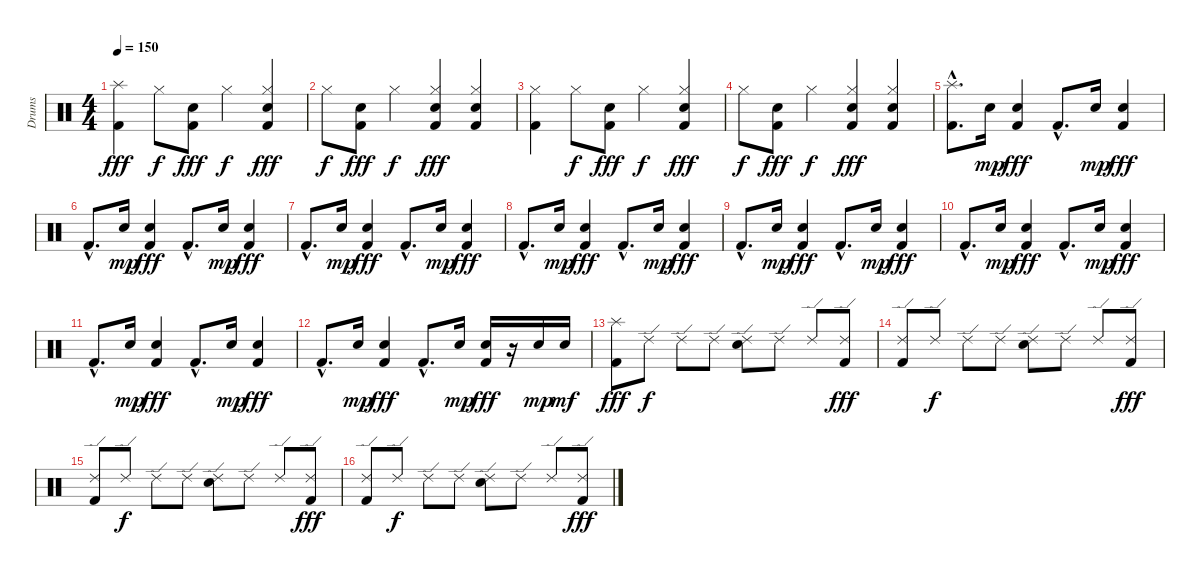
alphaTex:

\track ("Drums" "Drums") {instrument percussion}
\staff {score}
\articulation defaults
\ts (4 4)
\tempo 150
\clef neutral
\ks c
("Splash (hit)" "Kick (hit) 2").4{dy fff} "Hi-Hat (closed)".8{dy f} ("Snare (hit) 2" "Kick (hit) 2").8{dy fff} "Hi-Hat (closed)".4{dy f} ("Hi-Hat (closed)" "Snare (hit) 2" "Kick (hit) 2").4{dy fff} |
"Hi-Hat (closed)".8{dy f} ("Snare (hit) 2" "Kick (hit) 2").8{dy fff} "Hi-Hat (closed)".4{dy f} ("Hi-Hat (closed)" "Snare (hit) 2" "Kick (hit) 2").4{dy fff} ("Hi-Hat (closed)" "Snare (hit) 2" "Kick (hit) 2").4 |
("Hi-Hat (closed)" "Kick (hit) 2").4 "Hi-Hat (closed)".8{dy f} ("Snare (hit) 2" "Kick (hit) 2").8{dy fff} "Hi-Hat (closed)".4{dy f} ("Hi-Hat (closed)" "Snare (hit) 2" "Kick (hit) 2").4{dy fff} |
"Hi-Hat (closed)".8{dy f} ("Snare (hit) 2" "Kick (hit) 2").8{dy fff} "Hi-Hat (closed)".4{dy f} ("Hi-Hat (closed)" "Snare (hit) 2" "Kick (hit) 2").4{dy fff} ("Hi-Hat (closed)" "Snare (hit) 2" "Kick (hit) 2").4 |
("Splash (hit)"{hac} "Kick (hit) 2"{hac}).8{d} "Snare (hit) 2".16{dy mp} ("Snare (hit) 2" "Kick (hit) 2").4{dy fff} "Kick (hit) 2"{hac}.8{d} "Snare (hit) 2".16{dy mp} ("Snare (hit) 2" "Kick (hit) 2").4{dy fff} |
"Kick (hit) 2"{hac}.8{d} "Snare (hit) 2".16{dy mp} ("Snare (hit) 2" "Kick (hit) 2").4{dy fff} "Kick (hit) 2"{hac}.8{d} "Snare (hit) 2".16{dy mp} ("Snare (hit) 2" "Kick (hit) 2").4{dy fff} |
"Kick (hit) 2"{hac}.8{d} "Snare (hit) 2".16{dy mp} ("Snare (hit) 2" "Kick (hit) 2").4{dy fff} "Kick (hit) 2"{hac}.8{d} "Snare (hit) 2".16{dy mp} ("Snare (hit) 2" "Kick (hit) 2").4{dy fff} |
"Kick (hit) 2"{hac}.8{d} "Snare (hit) 2".16{dy mp} ("Snare (hit) 2" "Kick (hit) 2").4{dy fff} "Kick (hit) 2"{hac}.8{d} "Snare (hit) 2".16{dy mp} ("Snare (hit) 2" "Kick (hit) 2").4{dy fff} |
"Kick (hit) 2"{hac}.8{d} "Snare (hit) 2".16{dy mp} ("Snare (hit) 2" "Kick (hit) 2").4{dy fff} "Kick (hit) 2"{hac}.8{d} "Snare (hit) 2".16{dy mp} ("Snare (hit) 2" "Kick (hit) 2").4{dy fff} |
"Kick (hit) 2"{hac}.8{d} "Snare (hit) 2".16{dy mp} ("Snare (hit) 2" "Kick (hit) 2").4{dy fff} "Kick (hit) 2"{hac}.8{d} "Snare (hit) 2".16{dy mp} ("Snare (hit) 2" "Kick (hit) 2").4{dy fff} |
"Kick (hit) 2"{hac}.8{d} "Snare (hit) 2".16{dy mp} ("Snare (hit) 2" "Kick (hit) 2").4{dy fff} "Kick (hit) 2"{hac}.8{d} "Snare (hit) 2".16{dy mp} ("Snare (hit) 2" "Kick (hit) 2").4{dy fff} |
"Kick (hit) 2"{hac}.8{d} "Snare (hit) 2".16{dy mp} ("Snare (hit) 2" "Kick (hit) 2").4{dy fff} "Kick (hit) 2"{hac}.8{d} "Snare (hit) 2".16{dy mp} ("Snare (hit) 2" "Kick (hit) 2").16{dy fff} r.16 "Snare (hit) 2".16{dy mp} "Snare (hit) 2".16{dy mf} |
("Splash (hit)" "Kick (hit) 2").8{dy fff} "Ride (edge) 2".8{dy f} "Ride (edge) 2".8 "Ride (edge) 2".8 ("Ride (edge) 2" "Snare (hit) 2").8 "Ride (edge) 2".8 "Ride (edge) 2".8 ("Ride (edge) 2" "Kick (hit) 2").8{dy fff} |
("Ride (edge) 2" "Kick (hit) 2").8 "Ride (edge) 2".8{dy f} "Ride (edge) 2".8 "Ride (edge) 2".8 ("Ride (edge) 2" "Snare (hit) 2").8 "Ride (edge) 2".8 "Ride (edge) 2".8 ("Ride (edge) 2" "Kick (hit) 2").8{dy fff} |
("Ride (edge) 2" "Kick (hit) 2").8 "Ride (edge) 2".8{dy f} "Ride (edge) 2".8 "Ride (edge) 2".8 ("Ride (edge) 2" "Snare (hit) 2").8 "Ride (edge) 2".8 "Ride (edge) 2".8 ("Ride (edge) 2" "Kick (hit) 2").8{dy fff} |
("Ride (edge) 2" "Kick (hit) 2").8 "Ride (edge) 2".8{dy f} "Ride (edge) 2".8 "Ride (edge) 2".8 ("Ride (edge) 2" "Snare (hit) 2").8 "Ride (edge) 2".8 "Ride (edge) 2".8 ("Ride (edge) 2" "Kick (hit) 2").8{dy fff}
